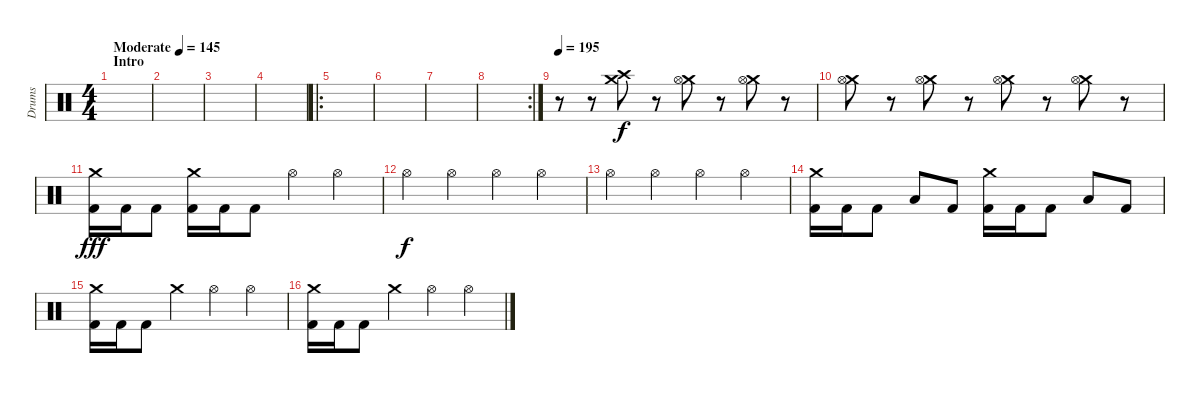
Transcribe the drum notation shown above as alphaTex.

\track ("Drums" "Drums") {instrument percussion}
\staff {score}
\articulation defaults
\ts (4 4)
\section ("" "Intro")
\tempo (145 "Moderate")
\clef neutral
\ks c
|
|
|
|
\ro
|
|
|
\rc 2
|
\tempo 195
r.8{volume 0} r.8 ("Crash medium (hit)" "Crash high (hit)").8{volume 13} r.8 ("Crash medium (hit)" "Hi-Hat (open)").8 r.8 ("Crash medium (hit)" "Hi-Hat (open)").8 r.8 |
("Crash medium (hit)" "Hi-Hat (open)").8 r.8 ("Crash medium (hit)" "Hi-Hat (open)").8 r.8 ("Crash medium (hit)" "Hi-Hat (open)").8 r.8 ("Crash medium (hit)" "Hi-Hat (open)").8 r.8 |
("Crash medium (hit)" "Kick (hit) 2").16{dy fff} "Kick (hit) 2".16 "Kick (hit) 2".8 ("Crash medium (hit)" "Kick (hit) 2").16 "Kick (hit) 2".16 "Kick (hit) 2".8 "Hi-Hat (open)".4 "Hi-Hat (open)".4 |
"Hi-Hat (open)".4{dy f} "Hi-Hat (open)".4 "Hi-Hat (open)".4 "Hi-Hat (open)".4 |
"Hi-Hat (open)".4 "Hi-Hat (open)".4 "Hi-Hat (open)".4 "Hi-Hat (open)".4 |
("Crash medium (hit)" "Kick (hit) 2").16 "Kick (hit) 2".16 "Kick (hit) 2".8 "Low Tom (hit)".8 "Kick (hit) 2".8 ("Crash medium (hit)" "Kick (hit) 2").16 "Kick (hit) 2".16 "Kick (hit) 2".8 "Low Floor Tom (hit)".8 "Kick (hit) 2".8 |
("Crash medium (hit)" "Kick (hit) 2").16 "Kick (hit) 2".16 "Kick (hit) 2".8 "Crash medium (hit)".4 "Hi-Hat (open)".4 "Hi-Hat (open)".4 |
("Crash medium (hit)" "Kick (hit) 2").16 "Kick (hit) 2".16 "Kick (hit) 2".8 "Crash medium (hit)".4 "Hi-Hat (open)".4 "Hi-Hat (open)".4
